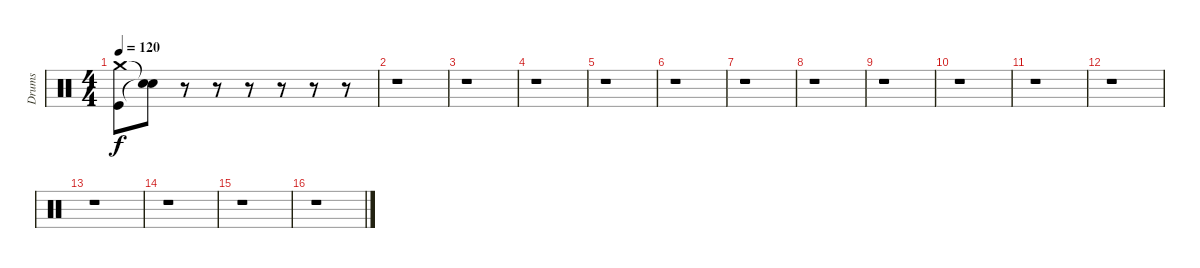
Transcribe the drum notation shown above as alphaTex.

\track ("Drums" "Drums") {instrument percussion}
\staff {score}
\articulation defaults
\ts (4 4)
\tempo 120
\clef neutral
\ks c
("Crash medium (hit)" "Kick (hit)").8{dy f} ("Snare (hit)"{t} "Snare (hit)"{t}).8 r.8 r.8 r.8 r.8 r.8 r.8 |
r.1 |
r.1 |
r.1 |
r.1 |
r.1 |
r.1 |
r.1 |
r.1 |
r.1 |
r.1 |
r.1 |
r.1 |
r.1 |
r.1 |
r.1
